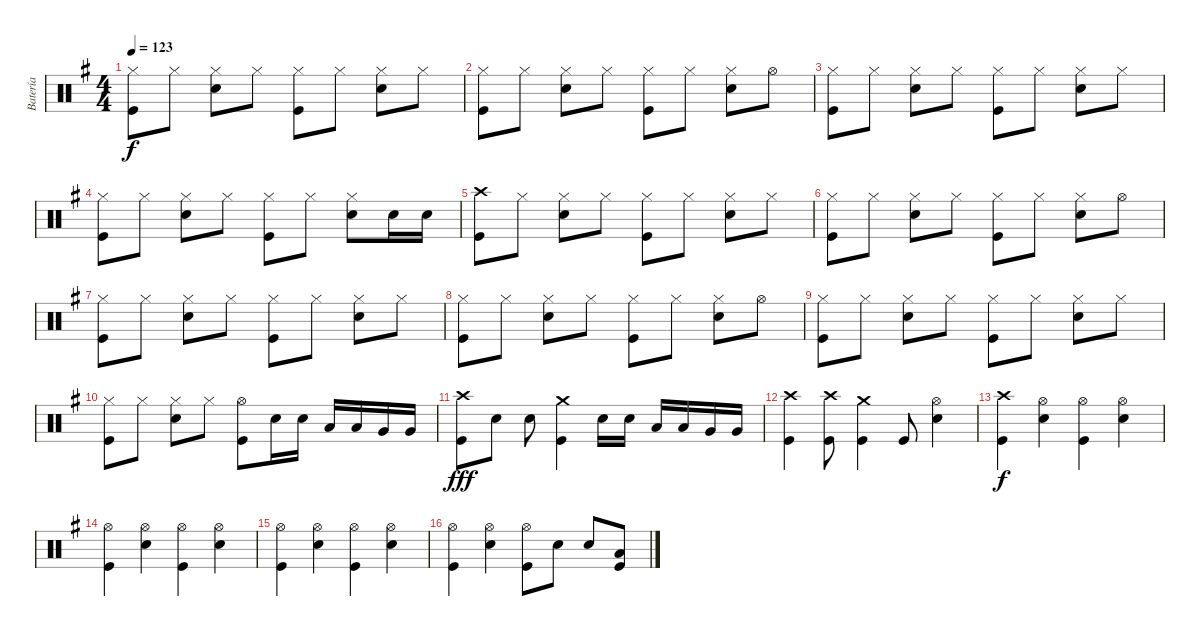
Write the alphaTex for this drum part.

\track ("Batería" "Batería") {instrument percussion}
\staff {score}
\articulation defaults
\ts (4 4)
\tempo 123
\clef neutral
\ks g
("Hi-Hat (closed)" "Kick (hit)").8{dy f} "Hi-Hat (closed)".8 ("Hi-Hat (closed)" "Snare (hit) 2").8 "Hi-Hat (closed)".8 ("Hi-Hat (closed)" "Kick (hit)").8 "Hi-Hat (closed)".8 ("Hi-Hat (closed)" "Snare (hit) 2").8 "Hi-Hat (closed)".8 |
("Hi-Hat (closed)" "Kick (hit)").8 "Hi-Hat (closed)".8 ("Hi-Hat (closed)" "Snare (hit) 2").8 "Hi-Hat (closed)".8 ("Hi-Hat (closed)" "Kick (hit)").8 "Hi-Hat (closed)".8 ("Hi-Hat (closed)" "Snare (hit) 2").8 "Hi-Hat (open)".8 |
("Hi-Hat (closed)" "Kick (hit)").8 "Hi-Hat (closed)".8 ("Hi-Hat (closed)" "Snare (hit) 2").8 "Hi-Hat (closed)".8 ("Hi-Hat (closed)" "Kick (hit)").8 "Hi-Hat (closed)".8 ("Hi-Hat (closed)" "Snare (hit) 2").8 "Hi-Hat (closed)".8 |
("Hi-Hat (closed)" "Kick (hit)").8 "Hi-Hat (closed)".8 ("Hi-Hat (closed)" "Snare (hit) 2").8 "Hi-Hat (closed)".8 ("Hi-Hat (closed)" "Kick (hit)").8 "Hi-Hat (closed)".8 ("Hi-Hat (closed)" "Snare (hit) 2").8 "Snare (hit) 2".16 "Snare (hit) 2".16 |
("Crash high (hit)" "Kick (hit)").8 "Hi-Hat (closed)".8 ("Hi-Hat (closed)" "Snare (hit) 2").8 "Hi-Hat (closed)".8 ("Hi-Hat (closed)" "Kick (hit)").8 "Hi-Hat (closed)".8 ("Hi-Hat (closed)" "Snare (hit) 2").8 "Hi-Hat (closed)".8 |
("Hi-Hat (closed)" "Kick (hit)").8 "Hi-Hat (closed)".8 ("Hi-Hat (closed)" "Snare (hit) 2").8 "Hi-Hat (closed)".8 ("Hi-Hat (closed)" "Kick (hit)").8 "Hi-Hat (closed)".8 ("Hi-Hat (closed)" "Snare (hit) 2").8 "Hi-Hat (open)".8 |
("Hi-Hat (closed)" "Kick (hit)").8 "Hi-Hat (closed)".8 ("Hi-Hat (closed)" "Snare (hit) 2").8 "Hi-Hat (closed)".8 ("Hi-Hat (closed)" "Kick (hit)").8 "Hi-Hat (closed)".8 ("Hi-Hat (closed)" "Snare (hit) 2").8 "Hi-Hat (closed)".8 |
("Hi-Hat (closed)" "Kick (hit)").8 "Hi-Hat (closed)".8 ("Hi-Hat (closed)" "Snare (hit) 2").8 "Hi-Hat (closed)".8 ("Hi-Hat (closed)" "Kick (hit)").8 "Hi-Hat (closed)".8 ("Hi-Hat (closed)" "Snare (hit) 2").8 "Hi-Hat (open)".8 |
("Hi-Hat (closed)" "Kick (hit)").8 "Hi-Hat (closed)".8 ("Hi-Hat (closed)" "Snare (hit) 2").8 "Hi-Hat (closed)".8 ("Hi-Hat (closed)" "Kick (hit)").8 "Hi-Hat (closed)".8 ("Hi-Hat (closed)" "Snare (hit) 2").8 "Hi-Hat (closed)".8 |
("Hi-Hat (closed)" "Kick (hit)").8 "Hi-Hat (closed)".8 ("Hi-Hat (closed)" "Snare (hit) 2").8 "Hi-Hat (closed)".8 ("Hi-Hat (open)" "Kick (hit)").8 "Snare (hit) 2".16 "Snare (hit) 2".16 "Low Tom (hit)".16 "Low Tom (hit)".16 "Very Low Tom (hit)".16 "Very Low Tom (hit)".16 |
("Crash high (hit)" "Kick (hit)").8{dy fff} "Snare (hit) 2".8 "Snare (hit) 2".8 ("Crash medium (hit)" "Kick (hit)").4 "Snare (hit) 2".16 "Snare (hit) 2".16 "Low Tom (hit)".16 "Low Tom (hit)".16 "Very Low Tom (hit)".16 "Very Low Tom (hit)".16 |
("Crash high (hit)" "Kick (hit)").4 ("Crash high (hit)" "Kick (hit)").8 ("Crash medium (hit)" "Kick (hit)").4 "Kick (hit)".8 ("Hi-Hat (open)" "Snare (hit) 2").4 |
("Crash high (hit)" "Kick (hit)").4{dy f} ("Hi-Hat (open)" "Snare (hit) 2").4 ("Hi-Hat (open)" "Kick (hit)").4 ("Hi-Hat (open)" "Snare (hit) 2").4 |
("Hi-Hat (open)" "Kick (hit)").4 ("Hi-Hat (open)" "Snare (hit) 2").4 ("Hi-Hat (open)" "Kick (hit)").4 ("Hi-Hat (open)" "Snare (hit) 2").4 |
("Hi-Hat (open)" "Kick (hit)").4 ("Hi-Hat (open)" "Snare (hit) 2").4 ("Hi-Hat (open)" "Kick (hit)").4 ("Hi-Hat (open)" "Snare (hit) 2").4 |
("Hi-Hat (open)" "Kick (hit)").4 ("Hi-Hat (open)" "Snare (hit) 2").4 ("Hi-Hat (open)" "Kick (hit)").8 "Snare (hit) 2".8 "Snare (hit) 2".8 ("Low Floor Tom (hit)" "Kick (hit)").8
